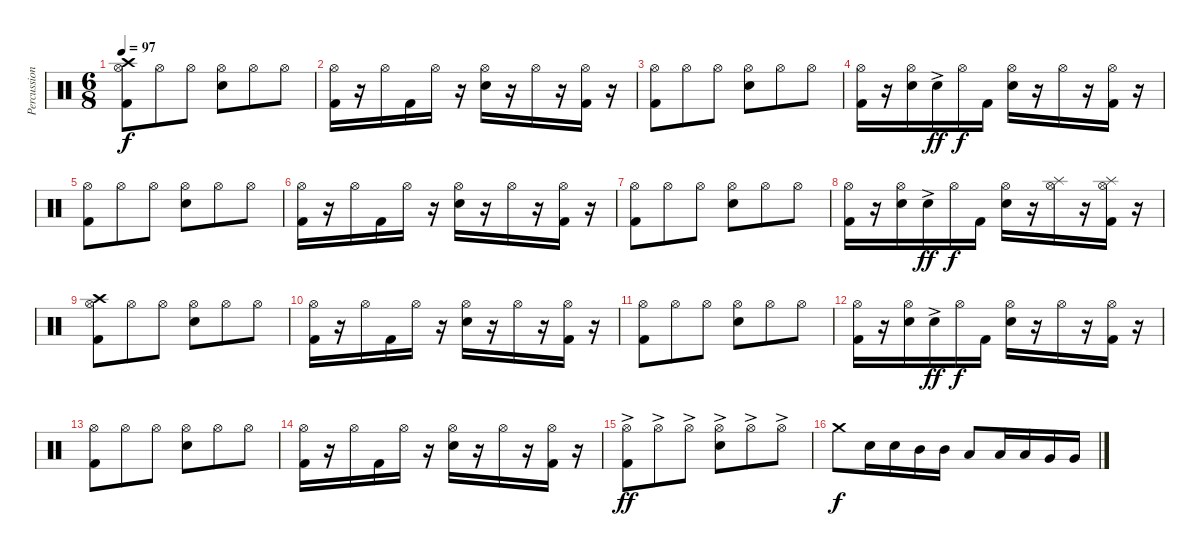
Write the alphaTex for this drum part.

\track ("Percussion" "Percussion") {instrument percussion}
\staff {score}
\articulation defaults
\ts (6 8)
\tempo 97
\clef neutral
\ks c
("Crash high (hit)" "Hi-Hat (open)" "Kick (hit) 2").8{dy f} "Hi-Hat (open)".8 "Hi-Hat (open)".8 ("Hi-Hat (open)" "Electric Snare (hit)").8 "Hi-Hat (open)".8 "Hi-Hat (open)".8 |
("Hi-Hat (open)" "Kick (hit) 2").16 r.16 "Hi-Hat (open)".16 "Kick (hit) 2".16 "Hi-Hat (open)".16 r.16 ("Hi-Hat (open)" "Electric Snare (hit)").16 r.16 "Hi-Hat (open)".16 r.16 ("Hi-Hat (open)" "Kick (hit) 2").16 r.16 |
("Hi-Hat (open)" "Kick (hit) 2").8 "Hi-Hat (open)".8 "Hi-Hat (open)".8 ("Hi-Hat (open)" "Electric Snare (hit)").8 "Hi-Hat (open)".8 "Hi-Hat (open)".8 |
("Hi-Hat (open)" "Kick (hit) 2").16 r.16 ("Hi-Hat (open)" "Electric Snare (hit)").16 "Electric Snare (hit)"{ac}.16{dy ff} "Hi-Hat (open)".16{dy f} "Kick (hit) 2".16 ("Hi-Hat (open)" "Electric Snare (hit)").16 r.16 "Hi-Hat (open)".16 r.16 ("Hi-Hat (open)" "Kick (hit) 2").16 r.16 |
("Hi-Hat (open)" "Kick (hit) 2").8 "Hi-Hat (open)".8 "Hi-Hat (open)".8 ("Hi-Hat (open)" "Electric Snare (hit)").8 "Hi-Hat (open)".8 "Hi-Hat (open)".8 |
("Hi-Hat (open)" "Kick (hit) 2").16 r.16 "Hi-Hat (open)".16 "Kick (hit) 2".16 "Hi-Hat (open)".16 r.16 ("Hi-Hat (open)" "Electric Snare (hit)").16 r.16 "Hi-Hat (open)".16 r.16 ("Hi-Hat (open)" "Kick (hit) 2").16 r.16 |
("Hi-Hat (open)" "Kick (hit) 2").8 "Hi-Hat (open)".8 "Hi-Hat (open)".8 ("Hi-Hat (open)" "Electric Snare (hit)").8 "Hi-Hat (open)".8 "Hi-Hat (open)".8 |
("Hi-Hat (open)" "Kick (hit) 2").16 r.16 ("Hi-Hat (open)" "Electric Snare (hit)").16 "Electric Snare (hit)"{ac}.16{dy ff} "Hi-Hat (open)".16{dy f} "Kick (hit) 2".16 ("Hi-Hat (open)" "Electric Snare (hit)").16 r.16 ("Splash (hit)" "Hi-Hat (open)").16 r.16 ("Splash (hit)" "Hi-Hat (open)" "Kick (hit) 2").16 r.16 |
("Crash high (hit)" "Hi-Hat (open)" "Kick (hit) 2").8 "Hi-Hat (open)".8 "Hi-Hat (open)".8 ("Hi-Hat (open)" "Electric Snare (hit)").8 "Hi-Hat (open)".8 "Hi-Hat (open)".8 |
("Hi-Hat (open)" "Kick (hit) 2").16 r.16 "Hi-Hat (open)".16 "Kick (hit) 2".16 "Hi-Hat (open)".16 r.16 ("Hi-Hat (open)" "Electric Snare (hit)").16 r.16 "Hi-Hat (open)".16 r.16 ("Hi-Hat (open)" "Kick (hit) 2").16 r.16 |
("Hi-Hat (open)" "Kick (hit) 2").8 "Hi-Hat (open)".8 "Hi-Hat (open)".8 ("Hi-Hat (open)" "Electric Snare (hit)").8 "Hi-Hat (open)".8 "Hi-Hat (open)".8 |
("Hi-Hat (open)" "Kick (hit) 2").16 r.16 ("Hi-Hat (open)" "Electric Snare (hit)").16 "Electric Snare (hit)"{ac}.16{dy ff} "Hi-Hat (open)".16{dy f} "Kick (hit) 2".16 ("Hi-Hat (open)" "Electric Snare (hit)").16 r.16 "Hi-Hat (open)".16 r.16 ("Hi-Hat (open)" "Kick (hit) 2").16 r.16 |
("Hi-Hat (open)" "Kick (hit) 2").8 "Hi-Hat (open)".8 "Hi-Hat (open)".8 ("Hi-Hat (open)" "Electric Snare (hit)").8 "Hi-Hat (open)".8 "Hi-Hat (open)".8 |
("Hi-Hat (open)" "Kick (hit) 2").16 r.16 "Hi-Hat (open)".16 "Kick (hit) 2".16 "Hi-Hat (open)".16 r.16 ("Hi-Hat (open)" "Electric Snare (hit)").16 r.16 "Hi-Hat (open)".16 r.16 ("Hi-Hat (open)" "Kick (hit) 2").16 r.16 |
("Hi-Hat (open)"{ac} "Kick (hit) 2").8{dy ff} "Hi-Hat (open)"{ac}.8 "Hi-Hat (open)"{ac}.8 ("Hi-Hat (open)"{ac} "Electric Snare (hit)").8 "Hi-Hat (open)"{ac}.8 "Hi-Hat (open)"{ac}.8 |
"Crash medium (hit)".8{dy f} "Electric Snare (hit)".16 "Electric Snare (hit)".16 "Mid Tom (hit)".16 "Mid Tom (hit)".16 "Low Tom (hit)".8 "Low Tom (hit)".16 "Low Tom (hit)".16 "Very Low Tom (hit)".16 "Very Low Tom (hit)".16
